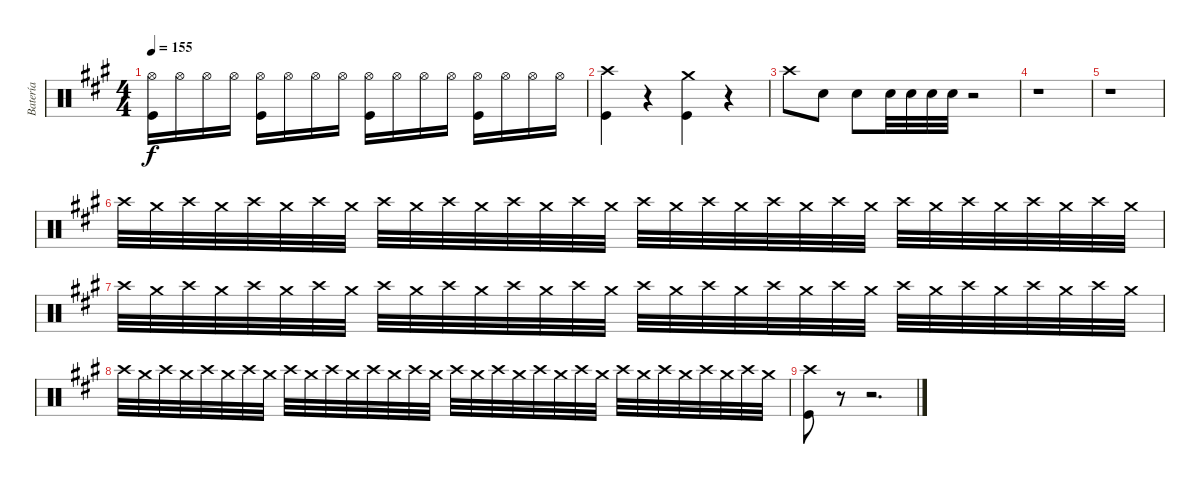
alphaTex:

\track ("Batería" "Batería") {instrument percussion}
\staff {score}
\articulation defaults
\ts (4 4)
\tempo 155
\clef neutral
\ks f#minor
("Hi-Hat (open)" "Kick (hit)").16{dy f} "Hi-Hat (open)".16 "Hi-Hat (open)".16 "Hi-Hat (open)".16 ("Hi-Hat (open)" "Kick (hit)").16 "Hi-Hat (open)".16 "Hi-Hat (open)".16 "Hi-Hat (open)".16 ("Hi-Hat (open)" "Kick (hit)").16 "Hi-Hat (open)".16 "Hi-Hat (open)".16 "Hi-Hat (open)".16 ("Hi-Hat (open)" "Kick (hit)").16 "Hi-Hat (open)".16 "Hi-Hat (open)".16 "Hi-Hat (open)".16 |
("Crash high (hit)" "Kick (hit)").4 r.4 ("Crash medium (hit)" "Kick (hit)").4 r.4 |
"Crash high (hit)".8 "Snare (hit) 2".8 "Snare (hit) 2".8 "Snare (hit) 2".32 "Snare (hit) 2".32 "Snare (hit) 2".32 "Snare (hit) 2".32 r.2 |
r.1 |
r.1 |
"Crash high (hit)".32 "Crash medium (hit)".32 "Crash high (hit)".32 "Crash medium (hit)".32 "Crash high (hit)".32 "Crash medium (hit)".32 "Crash high (hit)".32 "Crash medium (hit)".32 "Crash high (hit)".32 "Crash medium (hit)".32 "Crash high (hit)".32 "Crash medium (hit)".32 "Crash high (hit)".32 "Crash medium (hit)".32 "Crash high (hit)".32 "Crash medium (hit)".32 "Crash high (hit)".32 "Crash medium (hit)".32 "Crash high (hit)".32 "Crash medium (hit)".32 "Crash high (hit)".32 "Crash medium (hit)".32 "Crash high (hit)".32 "Crash medium (hit)".32 "Crash high (hit)".32 "Crash medium (hit)".32 "Crash high (hit)".32 "Crash medium (hit)".32 "Crash high (hit)".32 "Crash medium (hit)".32 "Crash high (hit)".32 "Crash medium (hit)".32 |
"Crash high (hit)".32 "Crash medium (hit)".32 "Crash high (hit)".32 "Crash medium (hit)".32 "Crash high (hit)".32 "Crash medium (hit)".32 "Crash high (hit)".32 "Crash medium (hit)".32 "Crash high (hit)".32 "Crash medium (hit)".32 "Crash high (hit)".32 "Crash medium (hit)".32 "Crash high (hit)".32 "Crash medium (hit)".32 "Crash high (hit)".32 "Crash medium (hit)".32 "Crash high (hit)".32 "Crash medium (hit)".32 "Crash high (hit)".32 "Crash medium (hit)".32 "Crash high (hit)".32 "Crash medium (hit)".32 "Crash high (hit)".32 "Crash medium (hit)".32 "Crash high (hit)".32 "Crash medium (hit)".32 "Crash high (hit)".32 "Crash medium (hit)".32 "Crash high (hit)".32 "Crash medium (hit)".32 "Crash high (hit)".32 "Crash medium (hit)".32 |
"Crash high (hit)".32 "Crash medium (hit)".32 "Crash high (hit)".32 "Crash medium (hit)".32 "Crash high (hit)".32 "Crash medium (hit)".32 "Crash high (hit)".32 "Crash medium (hit)".32 "Crash high (hit)".32 "Crash medium (hit)".32 "Crash high (hit)".32 "Crash medium (hit)".32 "Crash high (hit)".32 "Crash medium (hit)".32 "Crash high (hit)".32 "Crash medium (hit)".32 "Crash high (hit)".32 "Crash medium (hit)".32 "Crash high (hit)".32 "Crash medium (hit)".32 "Crash high (hit)".32 "Crash medium (hit)".32 "Crash high (hit)".32 "Crash medium (hit)".32 "Crash high (hit)".32 "Crash medium (hit)".32 "Crash high (hit)".32 "Crash medium (hit)".32 "Crash high (hit)".32 "Crash medium (hit)".32 "Crash high (hit)".32 "Crash medium (hit)".32 |
("Crash high (hit)" "Kick (hit)").8 r.8 r.2{d}
